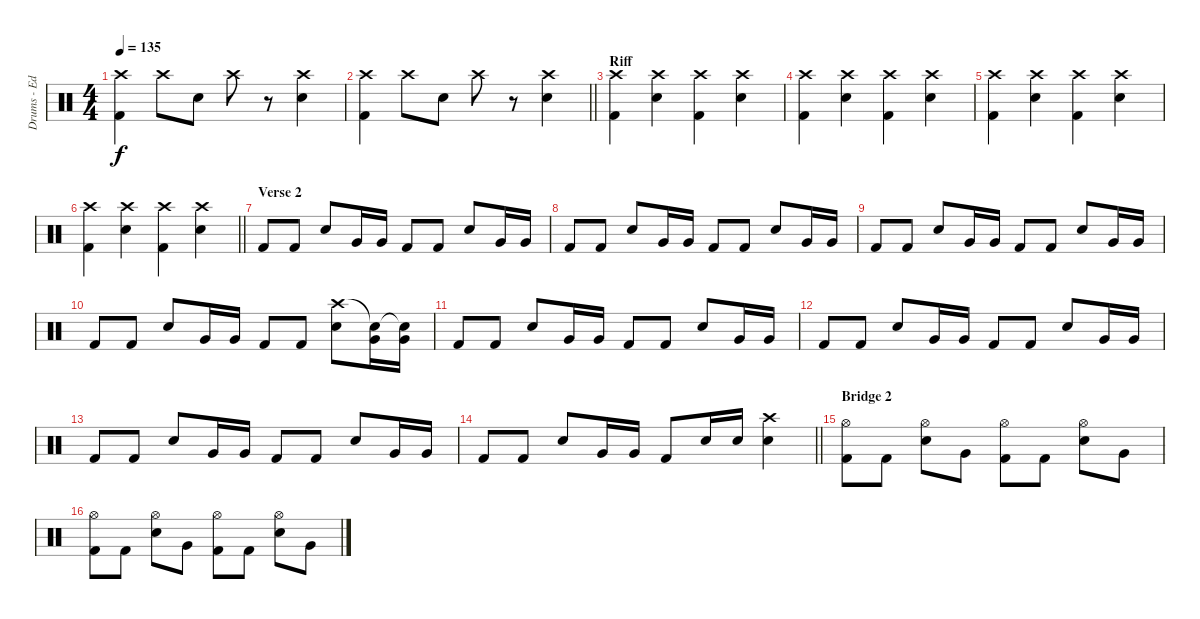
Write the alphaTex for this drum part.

\track ("Drums - Ed Edhus" "Drums - Ed") {instrument percussion bank 127}
\staff {score}
\articulation defaults
\ts (4 4)
\tempo 135
\clef neutral
\ks c
("Crash high (hit)" "Kick (hit) 2").4{dy f} "Crash high (hit)".8 "Snare (hit) 2".8 "Crash high (hit)".8 r.8 ("Crash high (hit)" "Snare (hit) 2").4 |
\barLineRight lightlight
("Crash high (hit)" "Kick (hit) 2").4 "Crash high (hit)".8 "Snare (hit) 2".8 "Crash high (hit)".8 r.8 ("Crash high (hit)" "Snare (hit) 2").4 |
\section ("" "Riff")
("Crash high (hit)" "Kick (hit) 2").4 ("Crash high (hit)" "Snare (hit) 2").4 ("Crash high (hit)" "Kick (hit) 2").4 ("Crash high (hit)" "Snare (hit) 2").4 |
("Crash high (hit)" "Kick (hit) 2").4 ("Crash high (hit)" "Snare (hit) 2").4 ("Crash high (hit)" "Kick (hit) 2").4 ("Crash high (hit)" "Snare (hit) 2").4 |
("Crash high (hit)" "Kick (hit) 2").4 ("Crash high (hit)" "Snare (hit) 2").4 ("Crash high (hit)" "Kick (hit) 2").4 ("Crash high (hit)" "Snare (hit) 2").4 |
\barLineRight lightlight
("Crash high (hit)" "Kick (hit) 2").4 ("Crash high (hit)" "Snare (hit) 2").4 ("Crash high (hit)" "Kick (hit) 2").4 ("Crash high (hit)" "Snare (hit) 2").4 |
\section ("" "Verse 2")
"Kick (hit) 2".8 "Kick (hit) 2".8 "Snare (hit) 2".8 "Very Low Tom (hit)".16 "Very Low Tom (hit)".16 "Kick (hit) 2".8 "Kick (hit) 2".8 "Snare (hit) 2".8 "Very Low Tom (hit)".16 "Very Low Tom (hit)".16 |
"Kick (hit) 2".8 "Kick (hit) 2".8 "Snare (hit) 2".8 "Very Low Tom (hit)".16 "Very Low Tom (hit)".16 "Kick (hit) 2".8 "Kick (hit) 2".8 "Snare (hit) 2".8 "Very Low Tom (hit)".16 "Very Low Tom (hit)".16 |
"Kick (hit) 2".8 "Kick (hit) 2".8 "Snare (hit) 2".8 "Very Low Tom (hit)".16 "Very Low Tom (hit)".16 "Kick (hit) 2".8 "Kick (hit) 2".8 "Snare (hit) 2".8 "Very Low Tom (hit)".16 "Very Low Tom (hit)".16 |
"Kick (hit) 2".8 "Kick (hit) 2".8 "Snare (hit) 2".8 "Very Low Tom (hit)".16 "Very Low Tom (hit)".16 "Kick (hit) 2".8 "Kick (hit) 2".8 ("Crash high (hit)" "Snare (hit) 2").8 ("Snare (hit)"{t} "Very Low Tom (hit)").16 ("Snare (hit)"{t} "Very Low Tom (hit)").16 |
"Kick (hit) 2".8 "Kick (hit) 2".8 "Snare (hit) 2".8 "Very Low Tom (hit)".16 "Very Low Tom (hit)".16 "Kick (hit) 2".8 "Kick (hit) 2".8 "Snare (hit) 2".8 "Very Low Tom (hit)".16 "Very Low Tom (hit)".16 |
"Kick (hit) 2".8 "Kick (hit) 2".8 "Snare (hit) 2".8 "Very Low Tom (hit)".16 "Very Low Tom (hit)".16 "Kick (hit) 2".8 "Kick (hit) 2".8 "Snare (hit) 2".8 "Very Low Tom (hit)".16 "Very Low Tom (hit)".16 |
"Kick (hit) 2".8 "Kick (hit) 2".8 "Snare (hit) 2".8 "Very Low Tom (hit)".16 "Very Low Tom (hit)".16 "Kick (hit) 2".8 "Kick (hit) 2".8 "Snare (hit) 2".8 "Very Low Tom (hit)".16 "Very Low Tom (hit)".16 |
\barLineRight lightlight "Kick (hit) 2".8 "Kick (hit) 2".8 "Snare (hit) 2".8 "Very Low Tom (hit)".16 "Very Low Tom (hit)".16 "Kick (hit) 2".8 "Snare (hit) 2".16 "Snare (hit) 2".16
("Crash high (hit)" "Snare (hit) 2").4 |
\section ("" "Bridge 2")
("Hi-Hat (open)" "Kick (hit) 2").8 "Kick (hit) 2".8 ("Hi-Hat (open)" "Snare (hit) 2").8 "Very Low Tom (hit)".8 ("Hi-Hat (open)" "Kick (hit) 2").8 "Kick (hit) 2".8 ("Hi-Hat (open)" "Snare (hit) 2").8 "Very Low Tom (hit)".8 |
("Hi-Hat (open)" "Kick (hit) 2").8 "Kick (hit) 2".8 ("Hi-Hat (open)" "Snare (hit) 2").8 "Very Low Tom (hit)".8 ("Hi-Hat (open)" "Kick (hit) 2").8 "Kick (hit) 2".8 ("Hi-Hat (open)" "Snare (hit) 2").8 "Very Low Tom (hit)".8
